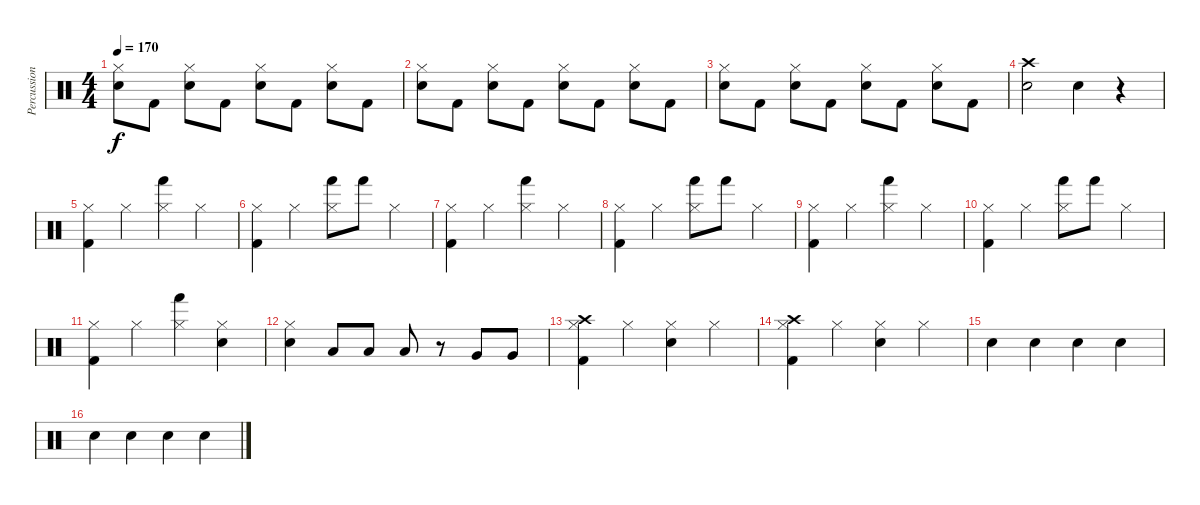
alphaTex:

\track ("Percussion" "Percussion") {instrument percussion}
\staff {score}
\articulation defaults
\ts (4 4)
\tempo 170
\clef neutral
\ks c
("Hi-Hat (closed)" "Electric Snare (hit)").8{dy f} "Kick (hit) 2".8 ("Hi-Hat (closed)" "Electric Snare (hit)").8 "Kick (hit) 2".8 ("Hi-Hat (closed)" "Electric Snare (hit)").8 "Kick (hit) 2".8 ("Hi-Hat (closed)" "Electric Snare (hit)").8 "Kick (hit) 2".8 |
("Hi-Hat (closed)" "Electric Snare (hit)").8 "Kick (hit) 2".8 ("Hi-Hat (closed)" "Electric Snare (hit)").8 "Kick (hit) 2".8 ("Hi-Hat (closed)" "Electric Snare (hit)").8 "Kick (hit) 2".8 ("Hi-Hat (closed)" "Electric Snare (hit)").8 "Kick (hit) 2".8 |
("Hi-Hat (closed)" "Electric Snare (hit)").8 "Kick (hit) 2".8 ("Hi-Hat (closed)" "Electric Snare (hit)").8 "Kick (hit) 2".8 ("Hi-Hat (closed)" "Electric Snare (hit)").8 "Kick (hit) 2".8 ("Hi-Hat (closed)" "Electric Snare (hit)").8 "Kick (hit) 2".8 |
("Crash high (hit)" "Electric Snare (hit)").2 "Electric Snare (hit)".4 r.4 |
("Hi-Hat (closed)" "Kick (hit) 2").4 "Hi-Hat (closed)".4 ("Hi-Hat (closed)" "Hand (hit)").4 "Hi-Hat (closed)".4 |
("Hi-Hat (closed)" "Kick (hit) 2").4 "Hi-Hat (closed)".4 ("Hi-Hat (closed)" "Hand (hit)").8 "Hand (hit)".8 "Hi-Hat (closed)".4 |
("Hi-Hat (closed)" "Kick (hit) 2").4 "Hi-Hat (closed)".4 ("Hi-Hat (closed)" "Hand (hit)").4 "Hi-Hat (closed)".4 |
("Hi-Hat (closed)" "Kick (hit) 2").4 "Hi-Hat (closed)".4 ("Hi-Hat (closed)" "Hand (hit)").8 "Hand (hit)".8 "Hi-Hat (closed)".4 |
("Hi-Hat (closed)" "Kick (hit) 2").4 "Hi-Hat (closed)".4 ("Hi-Hat (closed)" "Hand (hit)").4 "Hi-Hat (closed)".4 |
("Hi-Hat (closed)" "Kick (hit) 2").4 "Hi-Hat (closed)".4 ("Hi-Hat (closed)" "Hand (hit)").8 "Hand (hit)".8 "Hi-Hat (closed)".4 |
("Hi-Hat (closed)" "Kick (hit) 2").4 "Hi-Hat (closed)".4 ("Hi-Hat (closed)" "Hand (hit)").4 ("Hi-Hat (closed)" "Electric Snare (hit)").4 |
("Hi-Hat (closed)" "Electric Snare (hit)").4 "Low Tom (hit)".8 "Low Tom (hit)".8 "Low Tom (hit)".8 r.8 "Very Low Tom (hit)".8 "Very Low Tom (hit)".8 |
("Hi-Hat (closed)" "Kick (hit) 2" "Crash high (hit)").4 "Hi-Hat (closed)".4 ("Hi-Hat (closed)" "Electric Snare (hit)").4 "Hi-Hat (closed)".4 |
("Hi-Hat (closed)" "Kick (hit) 2" "Crash high (hit)").4 "Hi-Hat (closed)".4 ("Hi-Hat (closed)" "Electric Snare (hit)").4 "Hi-Hat (closed)".4 |
"Snare (hit) 2".4 "Snare (hit) 2".4 "Snare (hit) 2".4 "Electric Snare (hit)".4 |
"Snare (hit) 2".4 "Snare (hit) 2".4 "Snare (hit) 2".4 "Electric Snare (hit)".4
